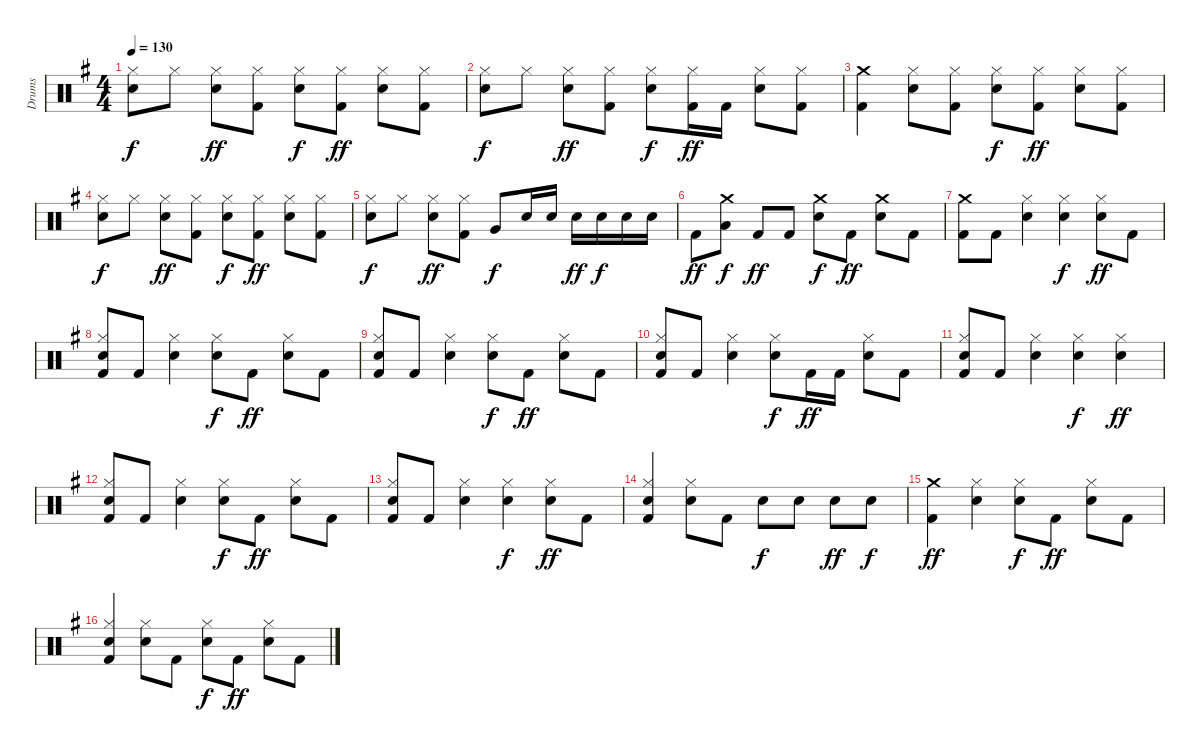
\track ("Drums" "Drums") {instrument percussion}
\staff {score}
\articulation defaults
\ts (4 4)
\tempo 130
\clef neutral
\ks g
("Snare (hit) 2" "Hi-Hat (closed)").8{dy f} "Hi-Hat (closed)".8 ("Snare (hit) 2" "Hi-Hat (closed)").8{dy ff} ("Kick (hit) 2" "Hi-Hat (closed)").8 ("Snare (hit) 2" "Hi-Hat (closed)").8{dy f} ("Kick (hit) 2" "Hi-Hat (closed)").8{dy ff} ("Snare (hit) 2" "Hi-Hat (closed)").8 ("Kick (hit) 2" "Hi-Hat (closed)").8 |
("Snare (hit) 2" "Hi-Hat (closed)").8{dy f} "Hi-Hat (closed)".8 ("Snare (hit) 2" "Hi-Hat (closed)").8{dy ff} ("Kick (hit) 2" "Hi-Hat (closed)").8 ("Snare (hit) 2" "Hi-Hat (closed)").8{dy f} ("Kick (hit) 2" "Hi-Hat (closed)").16{dy ff} "Kick (hit) 2".16 ("Snare (hit) 2" "Hi-Hat (closed)").8 ("Kick (hit) 2" "Hi-Hat (closed)").8 |
("Kick (hit) 2" "Crash medium (hit)").4 ("Snare (hit) 2" "Hi-Hat (closed)").8 ("Kick (hit) 2" "Hi-Hat (closed)").8 ("Snare (hit) 2" "Hi-Hat (closed)").8{dy f} ("Kick (hit) 2" "Hi-Hat (closed)").8{dy ff} ("Snare (hit) 2" "Hi-Hat (closed)").8 ("Kick (hit) 2" "Hi-Hat (closed)").8 |
("Snare (hit) 2" "Hi-Hat (closed)").8{dy f} "Hi-Hat (closed)".8 ("Snare (hit) 2" "Hi-Hat (closed)").8{dy ff} ("Kick (hit) 2" "Hi-Hat (closed)").8 ("Snare (hit) 2" "Hi-Hat (closed)").8{dy f} ("Kick (hit) 2" "Hi-Hat (closed)").8{dy ff} ("Snare (hit) 2" "Hi-Hat (closed)").8 ("Kick (hit) 2" "Hi-Hat (closed)").8 |
("Snare (hit) 2" "Hi-Hat (closed)").8{dy f} "Hi-Hat (closed)".8 ("Snare (hit) 2" "Hi-Hat (closed)").8{dy ff} ("Kick (hit) 2" "Hi-Hat (closed)").8 "Very Low Tom (hit)".8{dy f} "Snare (hit) 2".16 "Snare (hit) 2".16 "Snare (hit) 2".16{dy ff} "Snare (hit) 2".16{dy f} "Snare (hit) 2".16 "Snare (hit) 2".16 |
"Kick (hit) 2".8{dy ff} ("Crash medium (hit)" "Low Tom (hit)").8{dy f} "Kick (hit) 2".8{dy ff} "Kick (hit) 2".8 ("Snare (hit) 2" "Crash medium (hit)").8{dy f} "Kick (hit) 2".8{dy ff} ("Snare (hit) 2" "Crash medium (hit)").8 "Kick (hit) 2".8 |
("Kick (hit) 2" "Crash medium (hit)").8 "Kick (hit) 2".8 ("Snare (hit) 2" "Hi-Hat (closed)").4 ("Snare (hit) 2" "Hi-Hat (closed)").4{dy f} ("Snare (hit) 2" "Hi-Hat (closed)").8{dy ff} "Kick (hit) 2".8 |
("Kick (hit) 2" "Snare (hit) 2" "Hi-Hat (closed)").8 "Kick (hit) 2".8 ("Snare (hit) 2" "Hi-Hat (closed)").4 ("Snare (hit) 2" "Hi-Hat (closed)").8{dy f} "Kick (hit) 2".8{dy ff} ("Snare (hit) 2" "Hi-Hat (closed)").8 "Kick (hit) 2".8 |
("Kick (hit) 2" "Snare (hit) 2" "Hi-Hat (closed)").8 "Kick (hit) 2".8 ("Snare (hit) 2" "Hi-Hat (closed)").4 ("Snare (hit) 2" "Hi-Hat (closed)").8{dy f} "Kick (hit) 2".8{dy ff} ("Snare (hit) 2" "Hi-Hat (closed)").8 "Kick (hit) 2".8 |
("Kick (hit) 2" "Snare (hit) 2" "Hi-Hat (closed)").8 "Kick (hit) 2".8 ("Snare (hit) 2" "Hi-Hat (closed)").4 ("Snare (hit) 2" "Hi-Hat (closed)").8{dy f} "Kick (hit) 2".16{dy ff} "Kick (hit) 2".16 ("Snare (hit) 2" "Hi-Hat (closed)").8 "Kick (hit) 2".8 |
("Kick (hit) 2" "Snare (hit) 2" "Hi-Hat (closed)").8 "Kick (hit) 2".8 ("Snare (hit) 2" "Hi-Hat (closed)").4 ("Snare (hit) 2" "Hi-Hat (closed)").4{dy f} ("Snare (hit) 2" "Hi-Hat (closed)").4{dy ff} |
("Snare (hit) 2" "Hi-Hat (closed)" "Kick (hit) 2").8 "Kick (hit) 2".8 ("Snare (hit) 2" "Hi-Hat (closed)").4 ("Snare (hit) 2" "Hi-Hat (closed)").8{dy f} "Kick (hit) 2".8{dy ff} ("Snare (hit) 2" "Hi-Hat (closed)").8 "Kick (hit) 2".8 |
("Kick (hit) 2" "Snare (hit) 2" "Hi-Hat (closed)").8 "Kick (hit) 2".8 ("Snare (hit) 2" "Hi-Hat (closed)").4 ("Snare (hit) 2" "Hi-Hat (closed)").4{dy f} ("Snare (hit) 2" "Hi-Hat (closed)").8{dy ff} "Kick (hit) 2".8 |
("Kick (hit) 2" "Snare (hit) 2" "Hi-Hat (closed)").4 ("Snare (hit) 2" "Hi-Hat (closed)").8 "Kick (hit) 2".8 "Snare (hit) 2".8{dy f} "Snare (hit) 2".8 "Snare (hit) 2".8{dy ff} "Snare (hit) 2".8{dy f} |
("Kick (hit) 2" "Crash medium (hit)").4{dy ff} ("Snare (hit) 2" "Hi-Hat (closed)").4 ("Snare (hit) 2" "Hi-Hat (closed)").8{dy f} "Kick (hit) 2".8{dy ff} ("Snare (hit) 2" "Hi-Hat (closed)").8 "Kick (hit) 2".8 |
("Kick (hit) 2" "Snare (hit) 2" "Hi-Hat (closed)").4 ("Snare (hit) 2" "Hi-Hat (closed)").8 "Kick (hit) 2".8 ("Snare (hit) 2" "Hi-Hat (closed)").8{dy f} "Kick (hit) 2".8{dy ff} ("Snare (hit) 2" "Hi-Hat (closed)").8 "Kick (hit) 2".8
